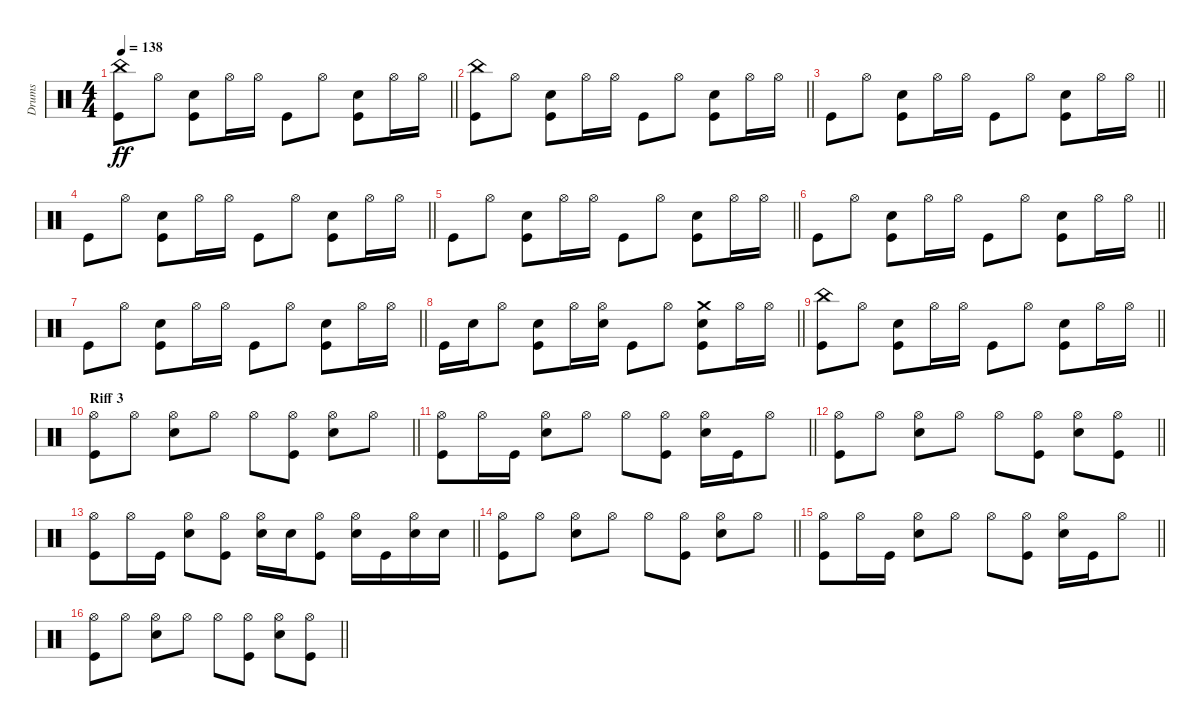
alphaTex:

\track ("Drums" "Drums") {instrument percussion}
\staff {score}
\articulation defaults
\ts (4 4)
\tempo 138
\clef neutral
\barLineRight lightlight
\ks c
("Kick (hit)" "China (hit)").8{dy ff} "Hi-Hat (open)".8 ("Kick (hit)" "Snare (hit) 2").8 "Hi-Hat (open)".16 "Hi-Hat (open)".16 "Kick (hit)".8 "Hi-Hat (open)".8 ("Kick (hit)" "Snare (hit) 2").8 "Hi-Hat (open)".16 "Hi-Hat (open)".16 |
\barLineRight lightlight
("Kick (hit)" "China (hit)").8 "Hi-Hat (open)".8 ("Kick (hit)" "Snare (hit) 2").8 "Hi-Hat (open)".16 "Hi-Hat (open)".16 "Kick (hit)".8 "Hi-Hat (open)".8 ("Kick (hit)" "Snare (hit) 2").8 "Hi-Hat (open)".16 "Hi-Hat (open)".16 |
\barLineRight lightlight "Kick (hit)".8 "Hi-Hat (open)".8
("Kick (hit)" "Snare (hit) 2").8 "Hi-Hat (open)".16 "Hi-Hat (open)".16 "Kick (hit)".8 "Hi-Hat (open)".8 ("Kick (hit)" "Snare (hit) 2").8 "Hi-Hat (open)".16 "Hi-Hat (open)".16 |
\barLineRight lightlight "Kick (hit)".8 "Hi-Hat (open)".8
("Kick (hit)" "Snare (hit) 2").8 "Hi-Hat (open)".16 "Hi-Hat (open)".16 "Kick (hit)".8 "Hi-Hat (open)".8 ("Kick (hit)" "Snare (hit) 2").8 "Hi-Hat (open)".16 "Hi-Hat (open)".16 |
\barLineRight lightlight "Kick (hit)".8 "Hi-Hat (open)".8
("Kick (hit)" "Snare (hit) 2").8 "Hi-Hat (open)".16 "Hi-Hat (open)".16 "Kick (hit)".8 "Hi-Hat (open)".8 ("Kick (hit)" "Snare (hit) 2").8 "Hi-Hat (open)".16 "Hi-Hat (open)".16 |
\barLineRight lightlight "Kick (hit)".8 "Hi-Hat (open)".8
("Kick (hit)" "Snare (hit) 2").8 "Hi-Hat (open)".16 "Hi-Hat (open)".16 "Kick (hit)".8 "Hi-Hat (open)".8 ("Kick (hit)" "Snare (hit) 2").8 "Hi-Hat (open)".16 "Hi-Hat (open)".16 |
\barLineRight lightlight "Kick (hit)".8 "Hi-Hat (open)".8
("Kick (hit)" "Snare (hit) 2").8 "Hi-Hat (open)".16 "Hi-Hat (open)".16 "Kick (hit)".8 "Hi-Hat (open)".8 ("Kick (hit)" "Snare (hit) 2").8 "Hi-Hat (open)".16 "Hi-Hat (open)".16 |
\barLineRight lightlight "Kick (hit)".16 "Snare (hit) 2".16 "Hi-Hat (open)".8
("Kick (hit)" "Snare (hit) 2").8 "Hi-Hat (open)".16 ("Snare (hit) 2" "Hi-Hat (open)").16 "Kick (hit)".8 "Hi-Hat (open)".8 ("Kick (hit)" "Snare (hit) 2" "Crash medium (hit)").8 "Hi-Hat (open)".16 "Hi-Hat (open)".16 |
\barLineRight lightlight
("Kick (hit)" "China (hit)").8 "Hi-Hat (open)".8 ("Kick (hit)" "Snare (hit) 2").8 "Hi-Hat (open)".16 "Hi-Hat (open)".16 "Kick (hit)".8 "Hi-Hat (open)".8 ("Kick (hit)" "Snare (hit) 2").8 "Hi-Hat (open)".16 "Hi-Hat (open)".16 |
\section ("" "Riff 3")
\barLineRight lightlight
("Kick (hit)" "Hi-Hat (open)").8 "Hi-Hat (open)".8 ("Snare (hit) 2" "Hi-Hat (open)").8 "Hi-Hat (open)".8 "Hi-Hat (open)".8 ("Kick (hit)" "Hi-Hat (open)").8 ("Snare (hit) 2" "Hi-Hat (open)").8 "Hi-Hat (open)".8 |
\barLineRight lightlight
("Kick (hit)" "Hi-Hat (open)").8 "Hi-Hat (open)".16 "Kick (hit)".16 ("Snare (hit) 2" "Hi-Hat (open)").8 "Hi-Hat (open)".8 "Hi-Hat (open)".8 ("Kick (hit)" "Hi-Hat (open)").8 ("Snare (hit) 2" "Hi-Hat (open)").16 "Kick (hit)".16 "Hi-Hat (open)".8 |
\barLineRight lightlight
("Kick (hit)" "Hi-Hat (open)").8 "Hi-Hat (open)".8 ("Snare (hit) 2" "Hi-Hat (open)").8 "Hi-Hat (open)".8 "Hi-Hat (open)".8 ("Kick (hit)" "Hi-Hat (open)").8 ("Snare (hit) 2" "Hi-Hat (open)").8 ("Kick (hit)" "Hi-Hat (open)").8 |
\barLineRight lightlight
("Kick (hit)" "Hi-Hat (open)").8 "Hi-Hat (open)".16 "Kick (hit)".16 ("Snare (hit) 2" "Hi-Hat (open)").8 ("Kick (hit)" "Hi-Hat (open)").8 ("Snare (hit) 2" "Hi-Hat (open)").16 "Snare (hit) 2".16 ("Kick (hit)" "Hi-Hat (open)").8 ("Snare (hit) 2" "Hi-Hat (open)").16 "Kick (hit)".16 ("Snare (hit) 2" "Hi-Hat (open)").16 "Snare (hit) 2".16 |
\barLineRight lightlight
("Kick (hit)" "Hi-Hat (open)").8 "Hi-Hat (open)".8 ("Snare (hit) 2" "Hi-Hat (open)").8 "Hi-Hat (open)".8 "Hi-Hat (open)".8 ("Kick (hit)" "Hi-Hat (open)").8 ("Snare (hit) 2" "Hi-Hat (open)").8 "Hi-Hat (open)".8 |
\barLineRight lightlight
("Kick (hit)" "Hi-Hat (open)").8 "Hi-Hat (open)".16 "Kick (hit)".16 ("Snare (hit) 2" "Hi-Hat (open)").8 "Hi-Hat (open)".8 "Hi-Hat (open)".8 ("Kick (hit)" "Hi-Hat (open)").8 ("Snare (hit) 2" "Hi-Hat (open)").16 "Kick (hit)".16 "Hi-Hat (open)".8 |
\barLineRight lightlight
("Kick (hit)" "Hi-Hat (open)").8 "Hi-Hat (open)".8 ("Snare (hit) 2" "Hi-Hat (open)").8 "Hi-Hat (open)".8 "Hi-Hat (open)".8 ("Kick (hit)" "Hi-Hat (open)").8 ("Snare (hit) 2" "Hi-Hat (open)").8 ("Kick (hit)" "Hi-Hat (open)").8
